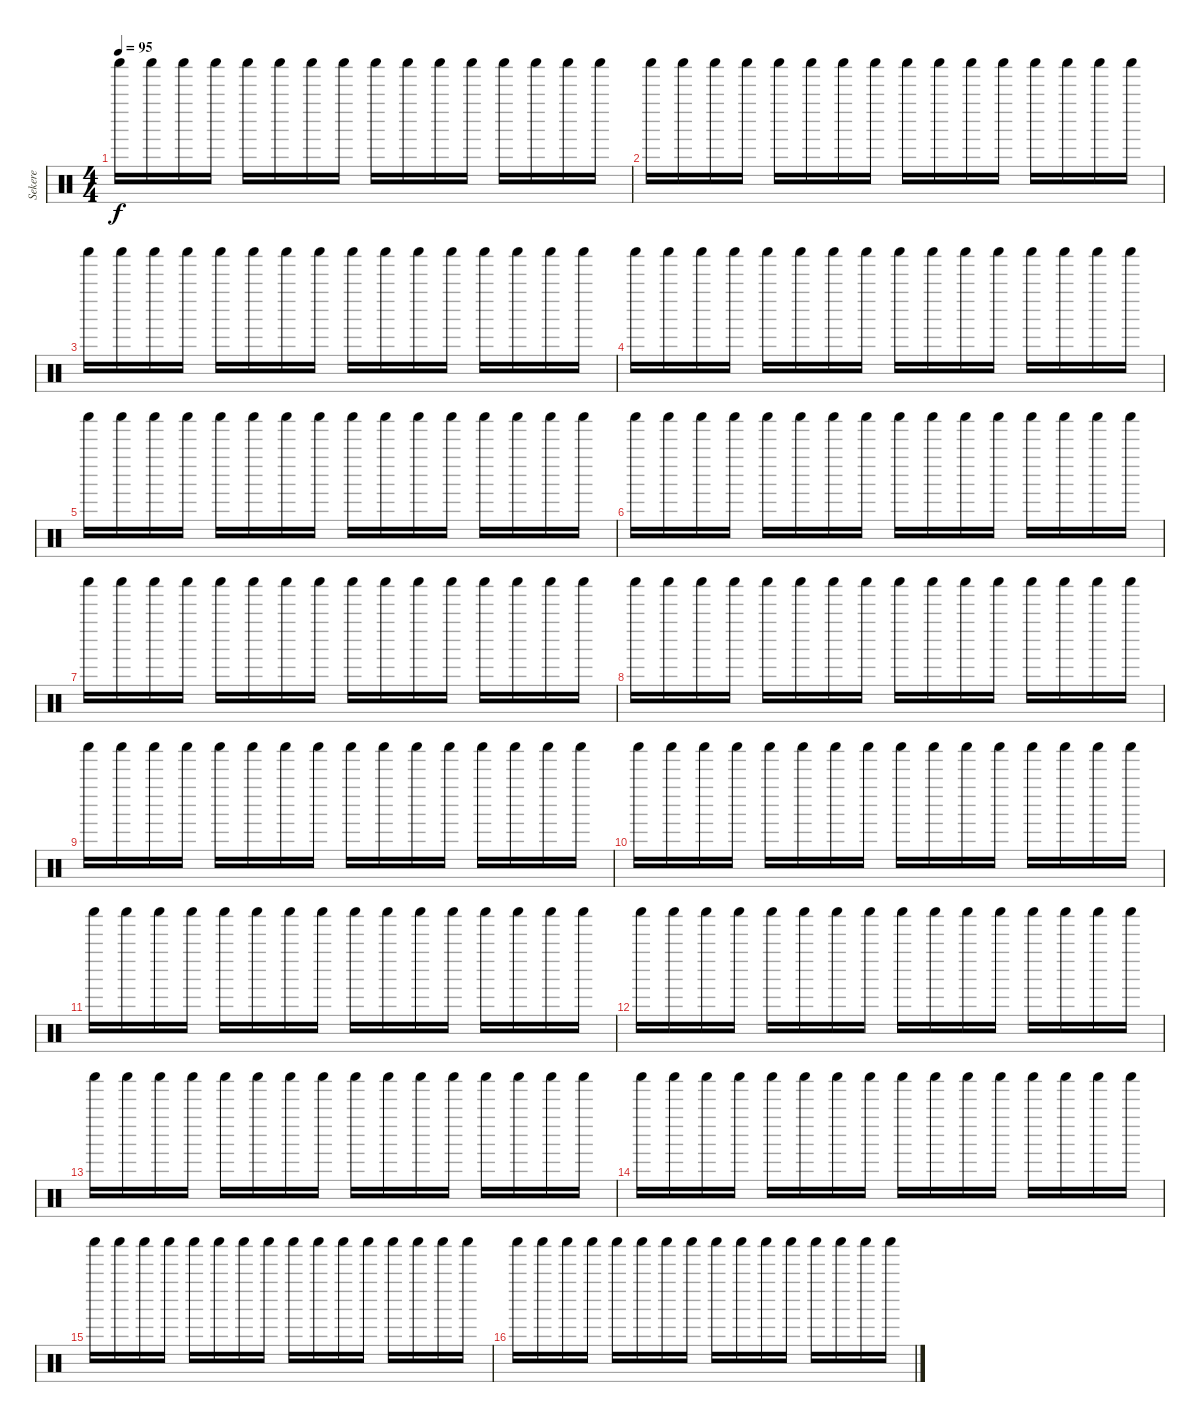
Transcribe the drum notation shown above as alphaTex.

\track ("Sekere" "Sekere") {instrument percussion}
\staff {score}
\articulation defaults
\ts (4 4)
\tempo 95
\clef neutral
\ks c "Shaker (hit)".16{dy f} "Shaker (hit)".16 "Shaker (hit)".16 "Shaker (hit)".16 "Shaker (hit)".16 "Shaker (hit)".16 "Shaker (hit)".16 "Shaker (hit)".16 "Shaker (hit)".16 "Shaker (hit)".16 "Shaker (hit)".16 "Shaker (hit)".16 "Shaker (hit)".16 "Shaker (hit)".16 "Shaker (hit)".16 "Shaker (hit)".16
|
"Shaker (hit)".16 "Shaker (hit)".16 "Shaker (hit)".16 "Shaker (hit)".16 "Shaker (hit)".16 "Shaker (hit)".16 "Shaker (hit)".16 "Shaker (hit)".16 "Shaker (hit)".16 "Shaker (hit)".16 "Shaker (hit)".16 "Shaker (hit)".16 "Shaker (hit)".16 "Shaker (hit)".16 "Shaker (hit)".16 "Shaker (hit)".16 |
"Shaker (hit)".16 "Shaker (hit)".16 "Shaker (hit)".16 "Shaker (hit)".16 "Shaker (hit)".16 "Shaker (hit)".16 "Shaker (hit)".16 "Shaker (hit)".16 "Shaker (hit)".16 "Shaker (hit)".16 "Shaker (hit)".16 "Shaker (hit)".16 "Shaker (hit)".16 "Shaker (hit)".16 "Shaker (hit)".16 "Shaker (hit)".16 |
"Shaker (hit)".16 "Shaker (hit)".16 "Shaker (hit)".16 "Shaker (hit)".16 "Shaker (hit)".16 "Shaker (hit)".16 "Shaker (hit)".16 "Shaker (hit)".16 "Shaker (hit)".16 "Shaker (hit)".16 "Shaker (hit)".16 "Shaker (hit)".16 "Shaker (hit)".16 "Shaker (hit)".16 "Shaker (hit)".16 "Shaker (hit)".16 |
"Shaker (hit)".16 "Shaker (hit)".16 "Shaker (hit)".16 "Shaker (hit)".16 "Shaker (hit)".16 "Shaker (hit)".16 "Shaker (hit)".16 "Shaker (hit)".16 "Shaker (hit)".16 "Shaker (hit)".16 "Shaker (hit)".16 "Shaker (hit)".16 "Shaker (hit)".16 "Shaker (hit)".16 "Shaker (hit)".16 "Shaker (hit)".16 |
"Shaker (hit)".16 "Shaker (hit)".16 "Shaker (hit)".16 "Shaker (hit)".16 "Shaker (hit)".16 "Shaker (hit)".16 "Shaker (hit)".16 "Shaker (hit)".16 "Shaker (hit)".16 "Shaker (hit)".16 "Shaker (hit)".16 "Shaker (hit)".16 "Shaker (hit)".16 "Shaker (hit)".16 "Shaker (hit)".16 "Shaker (hit)".16 |
"Shaker (hit)".16 "Shaker (hit)".16 "Shaker (hit)".16 "Shaker (hit)".16 "Shaker (hit)".16 "Shaker (hit)".16 "Shaker (hit)".16 "Shaker (hit)".16 "Shaker (hit)".16 "Shaker (hit)".16 "Shaker (hit)".16 "Shaker (hit)".16 "Shaker (hit)".16 "Shaker (hit)".16 "Shaker (hit)".16 "Shaker (hit)".16 |
"Shaker (hit)".16 "Shaker (hit)".16 "Shaker (hit)".16 "Shaker (hit)".16 "Shaker (hit)".16 "Shaker (hit)".16 "Shaker (hit)".16 "Shaker (hit)".16 "Shaker (hit)".16 "Shaker (hit)".16 "Shaker (hit)".16 "Shaker (hit)".16 "Shaker (hit)".16 "Shaker (hit)".16 "Shaker (hit)".16 "Shaker (hit)".16 |
"Shaker (hit)".16 "Shaker (hit)".16 "Shaker (hit)".16 "Shaker (hit)".16 "Shaker (hit)".16 "Shaker (hit)".16 "Shaker (hit)".16 "Shaker (hit)".16 "Shaker (hit)".16 "Shaker (hit)".16 "Shaker (hit)".16 "Shaker (hit)".16 "Shaker (hit)".16 "Shaker (hit)".16 "Shaker (hit)".16 "Shaker (hit)".16 |
"Shaker (hit)".16 "Shaker (hit)".16 "Shaker (hit)".16 "Shaker (hit)".16 "Shaker (hit)".16 "Shaker (hit)".16 "Shaker (hit)".16 "Shaker (hit)".16 "Shaker (hit)".16 "Shaker (hit)".16 "Shaker (hit)".16 "Shaker (hit)".16 "Shaker (hit)".16 "Shaker (hit)".16 "Shaker (hit)".16 "Shaker (hit)".16 |
"Shaker (hit)".16 "Shaker (hit)".16 "Shaker (hit)".16 "Shaker (hit)".16 "Shaker (hit)".16 "Shaker (hit)".16 "Shaker (hit)".16 "Shaker (hit)".16 "Shaker (hit)".16 "Shaker (hit)".16 "Shaker (hit)".16 "Shaker (hit)".16 "Shaker (hit)".16 "Shaker (hit)".16 "Shaker (hit)".16 "Shaker (hit)".16 |
"Shaker (hit)".16 "Shaker (hit)".16 "Shaker (hit)".16 "Shaker (hit)".16 "Shaker (hit)".16 "Shaker (hit)".16 "Shaker (hit)".16 "Shaker (hit)".16 "Shaker (hit)".16 "Shaker (hit)".16 "Shaker (hit)".16 "Shaker (hit)".16 "Shaker (hit)".16 "Shaker (hit)".16 "Shaker (hit)".16 "Shaker (hit)".16 |
"Shaker (hit)".16 "Shaker (hit)".16 "Shaker (hit)".16 "Shaker (hit)".16 "Shaker (hit)".16 "Shaker (hit)".16 "Shaker (hit)".16 "Shaker (hit)".16 "Shaker (hit)".16 "Shaker (hit)".16 "Shaker (hit)".16 "Shaker (hit)".16 "Shaker (hit)".16 "Shaker (hit)".16 "Shaker (hit)".16 "Shaker (hit)".16 |
"Shaker (hit)".16 "Shaker (hit)".16 "Shaker (hit)".16 "Shaker (hit)".16 "Shaker (hit)".16 "Shaker (hit)".16 "Shaker (hit)".16 "Shaker (hit)".16 "Shaker (hit)".16 "Shaker (hit)".16 "Shaker (hit)".16 "Shaker (hit)".16 "Shaker (hit)".16 "Shaker (hit)".16 "Shaker (hit)".16 "Shaker (hit)".16 |
"Shaker (hit)".16 "Shaker (hit)".16 "Shaker (hit)".16 "Shaker (hit)".16 "Shaker (hit)".16 "Shaker (hit)".16 "Shaker (hit)".16 "Shaker (hit)".16 "Shaker (hit)".16 "Shaker (hit)".16 "Shaker (hit)".16 "Shaker (hit)".16 "Shaker (hit)".16 "Shaker (hit)".16 "Shaker (hit)".16 "Shaker (hit)".16 |
"Shaker (hit)".16 "Shaker (hit)".16 "Shaker (hit)".16 "Shaker (hit)".16 "Shaker (hit)".16 "Shaker (hit)".16 "Shaker (hit)".16 "Shaker (hit)".16 "Shaker (hit)".16 "Shaker (hit)".16 "Shaker (hit)".16 "Shaker (hit)".16 "Shaker (hit)".16 "Shaker (hit)".16 "Shaker (hit)".16 "Shaker (hit)".16
